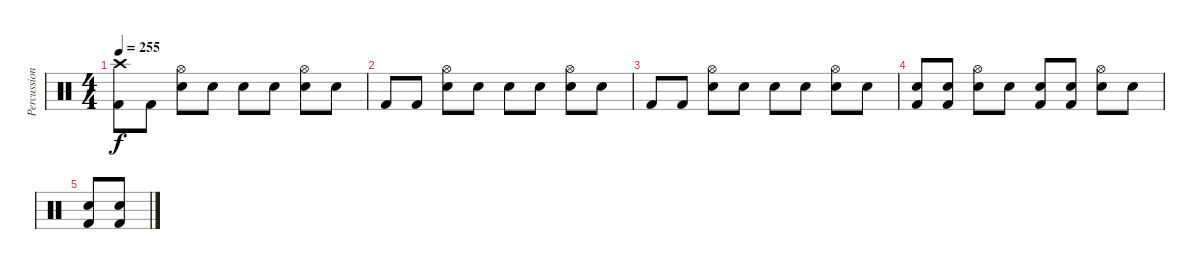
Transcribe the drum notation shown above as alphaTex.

\track ("Percussion" "Percussion") {instrument percussion}
\staff {score}
\articulation defaults
\ts (4 4)
\tempo 255
\clef neutral
\ks c
("Kick (hit) 2" "Crash high (hit)"{x}).8{dy f} "Kick (hit) 2".8 ("Snare (hit) 2" "Hi-Hat (open)").8 "Snare (hit)"{x}.8 "Snare (hit)"{x}.8 "Snare (hit)"{x}.8 ("Snare (hit) 2" "Hi-Hat (open)").8 "Snare (hit)"{x}.8 |
"Kick (hit) 2".8 "Kick (hit) 2".8 ("Snare (hit) 2" "Hi-Hat (open)").8 "Snare (hit)"{x}.8 "Snare (hit)"{x}.8 "Snare (hit)"{x}.8 ("Snare (hit) 2" "Hi-Hat (open)").8 "Snare (hit)"{x}.8 |
"Kick (hit) 2".8 "Kick (hit) 2".8 ("Snare (hit) 2" "Hi-Hat (open)").8 "Snare (hit)"{x}.8 "Snare (hit)"{x}.8 "Snare (hit)"{x}.8 ("Snare (hit) 2" "Hi-Hat (open)").8 "Snare (hit)"{x}.8 |
("Kick (hit) 2" "Snare (hit)"{x}).8 ("Kick (hit) 2" "Snare (hit)"{x}).8 ("Snare (hit) 2" "Hi-Hat (open)").8 "Snare (hit)"{x}.8 ("Kick (hit) 2" "Snare (hit)"{x}).8 ("Kick (hit) 2" "Snare (hit)"{x}).8 ("Snare (hit) 2" "Hi-Hat (open)").8 "Snare (hit)"{x}.8 |
("Kick (hit) 2" "Snare (hit) 2").8 ("Kick (hit) 2" "Snare (hit) 2").8
